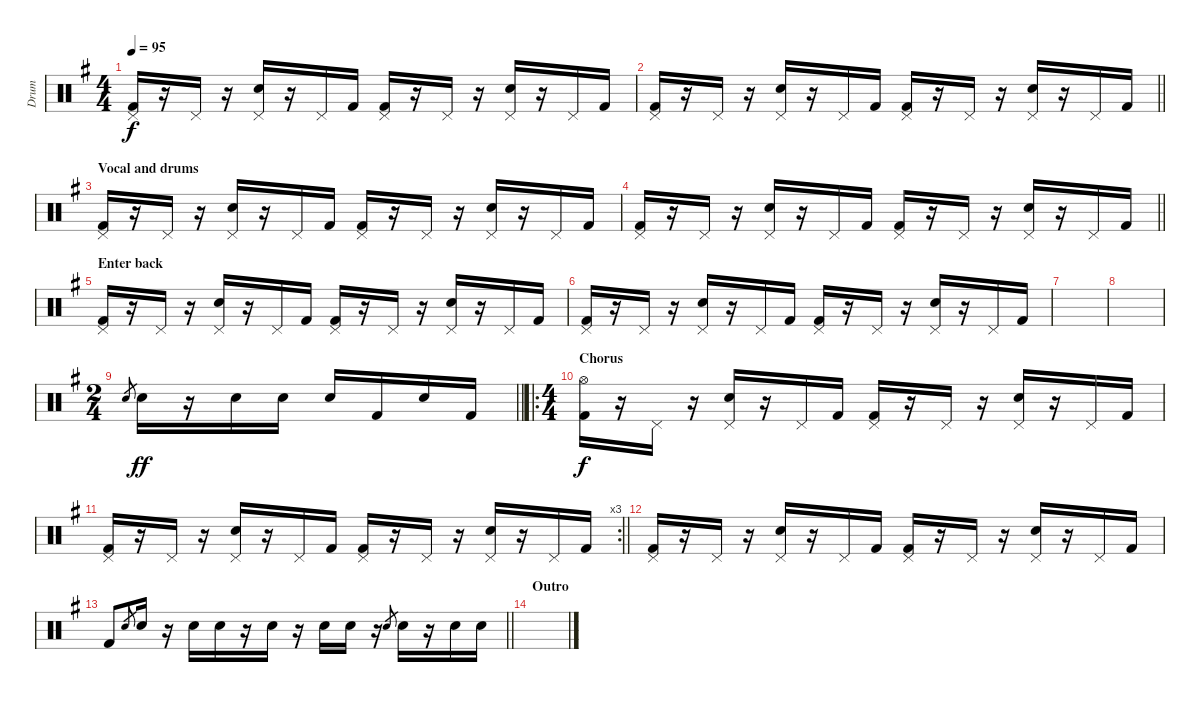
\track ("Drum" "Drum") {instrument percussion}
\staff {score}
\articulation defaults
\ts (4 4)
\tempo 95
\clef neutral
\ks g
("Pedal Hi-Hat (hit)" "Kick (hit) 2").16{dy f} r.16 "Pedal Hi-Hat (hit)".16 r.16 ("Pedal Hi-Hat (hit)" "Electric Snare (hit)").16 r.16 "Pedal Hi-Hat (hit)".16 "Kick (hit) 2".16 ("Pedal Hi-Hat (hit)" "Kick (hit) 2").16 r.16 "Pedal Hi-Hat (hit)".16 r.16 ("Pedal Hi-Hat (hit)" "Electric Snare (hit)").16 r.16 "Pedal Hi-Hat (hit)".16 "Kick (hit) 2".16 |
\barLineRight lightlight
("Pedal Hi-Hat (hit)" "Kick (hit) 2").16 r.16 "Pedal Hi-Hat (hit)".16 r.16 ("Pedal Hi-Hat (hit)" "Electric Snare (hit)").16 r.16 "Pedal Hi-Hat (hit)".16 "Kick (hit) 2".16 ("Pedal Hi-Hat (hit)" "Kick (hit) 2").16 r.16 "Pedal Hi-Hat (hit)".16 r.16 ("Pedal Hi-Hat (hit)" "Electric Snare (hit)").16 r.16 "Pedal Hi-Hat (hit)".16 "Kick (hit) 2".16 |
\section ("" "Vocal and drums")
("Pedal Hi-Hat (hit)" "Kick (hit) 2").16 r.16 "Pedal Hi-Hat (hit)".16 r.16 ("Pedal Hi-Hat (hit)" "Electric Snare (hit)").16 r.16 "Pedal Hi-Hat (hit)".16 "Kick (hit) 2".16 ("Pedal Hi-Hat (hit)" "Kick (hit) 2").16 r.16 "Pedal Hi-Hat (hit)".16 r.16 ("Pedal Hi-Hat (hit)" "Electric Snare (hit)").16 r.16 "Pedal Hi-Hat (hit)".16 "Kick (hit) 2".16 |
\barLineRight lightlight
("Pedal Hi-Hat (hit)" "Kick (hit) 2").16 r.16 "Pedal Hi-Hat (hit)".16 r.16 ("Pedal Hi-Hat (hit)" "Electric Snare (hit)").16 r.16 "Pedal Hi-Hat (hit)".16 "Kick (hit) 2".16 ("Pedal Hi-Hat (hit)" "Kick (hit) 2").16 r.16 "Pedal Hi-Hat (hit)".16 r.16 ("Pedal Hi-Hat (hit)" "Electric Snare (hit)").16 r.16 "Pedal Hi-Hat (hit)".16 "Kick (hit) 2".16 |
\section ("" "Enter back")
("Pedal Hi-Hat (hit)" "Kick (hit) 2").16 r.16 "Pedal Hi-Hat (hit)".16 r.16 ("Pedal Hi-Hat (hit)" "Electric Snare (hit)").16 r.16 "Pedal Hi-Hat (hit)".16 "Kick (hit) 2".16 ("Pedal Hi-Hat (hit)" "Kick (hit) 2").16 r.16 "Pedal Hi-Hat (hit)".16 r.16 ("Pedal Hi-Hat (hit)" "Electric Snare (hit)").16 r.16 "Pedal Hi-Hat (hit)".16 "Kick (hit) 2".16 |
("Pedal Hi-Hat (hit)" "Kick (hit) 2").16 r.16 "Pedal Hi-Hat (hit)".16 r.16 ("Pedal Hi-Hat (hit)" "Electric Snare (hit)").16 r.16 "Pedal Hi-Hat (hit)".16 "Kick (hit) 2".16 ("Pedal Hi-Hat (hit)" "Kick (hit) 2").16 r.16 "Pedal Hi-Hat (hit)".16 r.16 ("Pedal Hi-Hat (hit)" "Electric Snare (hit)").16 r.16 "Pedal Hi-Hat (hit)".16 "Kick (hit) 2".16 |
|
|
\ts (2 4)
\barLineRight lightlight "Electric Snare (hit)".8{gr} "Electric Snare (hit)".16{dy ff}
r.16 "Electric Snare (hit)".16 "Electric Snare (hit)".16 "Electric Snare (hit)".16 "Kick (hit) 2".16 "Electric Snare (hit)".16 "Kick (hit) 2".16 |
\ro
\ts (4 4)
\section ("" "Chorus")
("Hi-Hat (open)" "Kick (hit) 2").16{dy f} r.16 "Pedal Hi-Hat (hit)".16 r.16 ("Pedal Hi-Hat (hit)" "Electric Snare (hit)").16 r.16 "Pedal Hi-Hat (hit)".16 "Kick (hit) 2".16 ("Pedal Hi-Hat (hit)" "Kick (hit) 2").16 r.16 "Pedal Hi-Hat (hit)".16 r.16 ("Pedal Hi-Hat (hit)" "Electric Snare (hit)").16 r.16 "Pedal Hi-Hat (hit)".16 "Kick (hit) 2".16 |
\rc 3
\barLineRight lightlight
("Pedal Hi-Hat (hit)" "Kick (hit) 2").16 r.16 "Pedal Hi-Hat (hit)".16 r.16 ("Pedal Hi-Hat (hit)" "Electric Snare (hit)").16 r.16 "Pedal Hi-Hat (hit)".16 "Kick (hit) 2".16 ("Pedal Hi-Hat (hit)" "Kick (hit) 2").16 r.16 "Pedal Hi-Hat (hit)".16 r.16 ("Pedal Hi-Hat (hit)" "Electric Snare (hit)").16 r.16 "Pedal Hi-Hat (hit)".16 "Kick (hit) 2".16 |
("Pedal Hi-Hat (hit)" "Kick (hit) 2").16 r.16 "Pedal Hi-Hat (hit)".16 r.16 ("Pedal Hi-Hat (hit)" "Electric Snare (hit)").16 r.16 "Pedal Hi-Hat (hit)".16 "Kick (hit) 2".16 ("Pedal Hi-Hat (hit)" "Kick (hit) 2").16 r.16 "Pedal Hi-Hat (hit)".16 r.16 ("Pedal Hi-Hat (hit)" "Electric Snare (hit)").16 r.16 "Pedal Hi-Hat (hit)".16 "Kick (hit) 2".16 |
\barLineRight lightlight "Kick (hit) 2".8 "Electric Snare (hit)".8{gr} "Electric Snare (hit)".16
r.16 "Electric Snare (hit)".16 "Electric Snare (hit)".16 r.16 "Electric Snare (hit)".16 r.16 "Electric Snare (hit)".16 "Electric Snare (hit)".16 r.16 "Electric Snare (hit)".8{gr} "Electric Snare (hit)".16 r.16 "Electric Snare (hit)".16 "Electric Snare (hit)".16 |
\section ("" "Outro")
